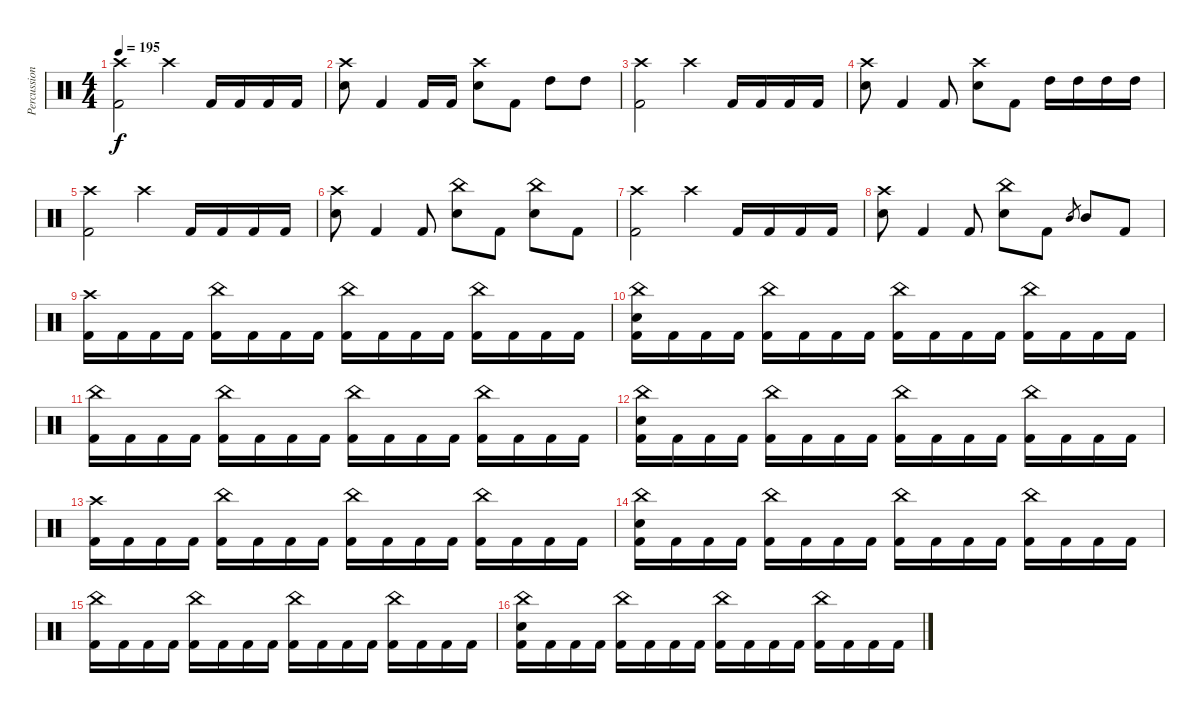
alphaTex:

\track ("Percussion" "Percussion") {instrument percussion}
\staff {score}
\articulation defaults
\ts (4 4)
\tempo 195
\clef neutral
\ks c
("Crash high (hit)" "Kick (hit) 2").2{dy f} "Crash high (hit)".4 "Kick (hit) 2".16 "Kick (hit) 2".16 "Kick (hit) 2".16 "Kick (hit) 2".16 |
("Snare (hit) 2" "Crash high (hit)").8 "Kick (hit) 2".4 "Kick (hit) 2".16 "Kick (hit) 2".16 ("Crash high (hit)" "Snare (hit) 2").8 "Kick (hit) 2".8 "High Tom (hit)".8 "High Tom (hit)".8 |
("Crash high (hit)" "Kick (hit) 2").2 "Crash high (hit)".4 "Kick (hit) 2".16 "Kick (hit) 2".16 "Kick (hit) 2".16 "Kick (hit) 2".16 |
("Snare (hit) 2" "Crash high (hit)").8 "Kick (hit) 2".4 "Kick (hit) 2".8 ("Crash high (hit)" "Snare (hit) 2").8 "Kick (hit) 2".8 "High Tom (hit)".16 "High Tom (hit)".16 "High Tom (hit)".16 "High Tom (hit)".16 |
("Crash high (hit)" "Kick (hit) 2").2 "Crash high (hit)".4 "Kick (hit) 2".16 "Kick (hit) 2".16 "Kick (hit) 2".16 "Kick (hit) 2".16 |
("Snare (hit) 2" "Crash high (hit)").8 "Kick (hit) 2".4 "Kick (hit) 2".8 ("Snare (hit) 2" "China (hit)").8 "Kick (hit) 2".8 ("Snare (hit) 2" "China (hit)").8 "Kick (hit) 2".8 |
("Crash high (hit)" "Kick (hit) 2").2 "Crash high (hit)".4 "Kick (hit) 2".16 "Kick (hit) 2".16 "Kick (hit) 2".16 "Kick (hit) 2".16 |
("Snare (hit) 2" "Crash high (hit)").8 "Kick (hit) 2".4 "Kick (hit) 2".8 ("Snare (hit) 2" "China (hit)").8 "Kick (hit) 2".8 "Mid Tom (hit)".8{gr} "Mid Tom (hit)".8 "Kick (hit) 2".8 |
("Kick (hit) 2" "Crash high (hit)").16 "Kick (hit) 2".16 "Kick (hit) 2".16 "Kick (hit) 2".16 ("Kick (hit) 2" "China (hit)").16 "Kick (hit) 2".16 "Kick (hit) 2".16 "Kick (hit) 2".16 ("Kick (hit) 2" "China (hit)").16 "Kick (hit) 2".16 "Kick (hit) 2".16 "Kick (hit) 2".16 ("Kick (hit) 2" "China (hit)").16 "Kick (hit) 2".16 "Kick (hit) 2".16 "Kick (hit) 2".16 |
("Kick (hit) 2" "China (hit)" "Snare (hit) 2").16 "Kick (hit) 2".16 "Kick (hit) 2".16 "Kick (hit) 2".16 ("Kick (hit) 2" "China (hit)").16 "Kick (hit) 2".16 "Kick (hit) 2".16 "Kick (hit) 2".16 ("Kick (hit) 2" "China (hit)").16 "Kick (hit) 2".16 "Kick (hit) 2".16 "Kick (hit) 2".16 ("Kick (hit) 2" "China (hit)").16 "Kick (hit) 2".16 "Kick (hit) 2".16 "Kick (hit) 2".16 |
("Kick (hit) 2" "China (hit)").16 "Kick (hit) 2".16 "Kick (hit) 2".16 "Kick (hit) 2".16 ("Kick (hit) 2" "China (hit)").16 "Kick (hit) 2".16 "Kick (hit) 2".16 "Kick (hit) 2".16 ("Kick (hit) 2" "China (hit)").16 "Kick (hit) 2".16 "Kick (hit) 2".16 "Kick (hit) 2".16 ("Kick (hit) 2" "China (hit)").16 "Kick (hit) 2".16 "Kick (hit) 2".16 "Kick (hit) 2".16 |
("Kick (hit) 2" "China (hit)" "Snare (hit) 2").16 "Kick (hit) 2".16 "Kick (hit) 2".16 "Kick (hit) 2".16 ("Kick (hit) 2" "China (hit)").16 "Kick (hit) 2".16 "Kick (hit) 2".16 "Kick (hit) 2".16 ("Kick (hit) 2" "China (hit)").16 "Kick (hit) 2".16 "Kick (hit) 2".16 "Kick (hit) 2".16 ("Kick (hit) 2" "China (hit)").16 "Kick (hit) 2".16 "Kick (hit) 2".16 "Kick (hit) 2".16 |
("Kick (hit) 2" "Crash high (hit)").16 "Kick (hit) 2".16 "Kick (hit) 2".16 "Kick (hit) 2".16 ("Kick (hit) 2" "China (hit)").16 "Kick (hit) 2".16 "Kick (hit) 2".16 "Kick (hit) 2".16 ("Kick (hit) 2" "China (hit)").16 "Kick (hit) 2".16 "Kick (hit) 2".16 "Kick (hit) 2".16 ("Kick (hit) 2" "China (hit)").16 "Kick (hit) 2".16 "Kick (hit) 2".16 "Kick (hit) 2".16 |
("Kick (hit) 2" "China (hit)" "Snare (hit) 2").16 "Kick (hit) 2".16 "Kick (hit) 2".16 "Kick (hit) 2".16 ("Kick (hit) 2" "China (hit)").16 "Kick (hit) 2".16 "Kick (hit) 2".16 "Kick (hit) 2".16 ("Kick (hit) 2" "China (hit)").16 "Kick (hit) 2".16 "Kick (hit) 2".16 "Kick (hit) 2".16 ("Kick (hit) 2" "China (hit)").16 "Kick (hit) 2".16 "Kick (hit) 2".16 "Kick (hit) 2".16 |
("Kick (hit) 2" "China (hit)").16 "Kick (hit) 2".16 "Kick (hit) 2".16 "Kick (hit) 2".16 ("Kick (hit) 2" "China (hit)").16 "Kick (hit) 2".16 "Kick (hit) 2".16 "Kick (hit) 2".16 ("Kick (hit) 2" "China (hit)").16 "Kick (hit) 2".16 "Kick (hit) 2".16 "Kick (hit) 2".16 ("Kick (hit) 2" "China (hit)").16 "Kick (hit) 2".16 "Kick (hit) 2".16 "Kick (hit) 2".16 |
("Kick (hit) 2" "China (hit)" "Snare (hit) 2").16 "Kick (hit) 2".16 "Kick (hit) 2".16 "Kick (hit) 2".16 ("Kick (hit) 2" "China (hit)").16 "Kick (hit) 2".16 "Kick (hit) 2".16 "Kick (hit) 2".16 ("Kick (hit) 2" "China (hit)").16 "Kick (hit) 2".16 "Kick (hit) 2".16 "Kick (hit) 2".16 ("Kick (hit) 2" "China (hit)").16 "Kick (hit) 2".16 "Kick (hit) 2".16 "Kick (hit) 2".16
